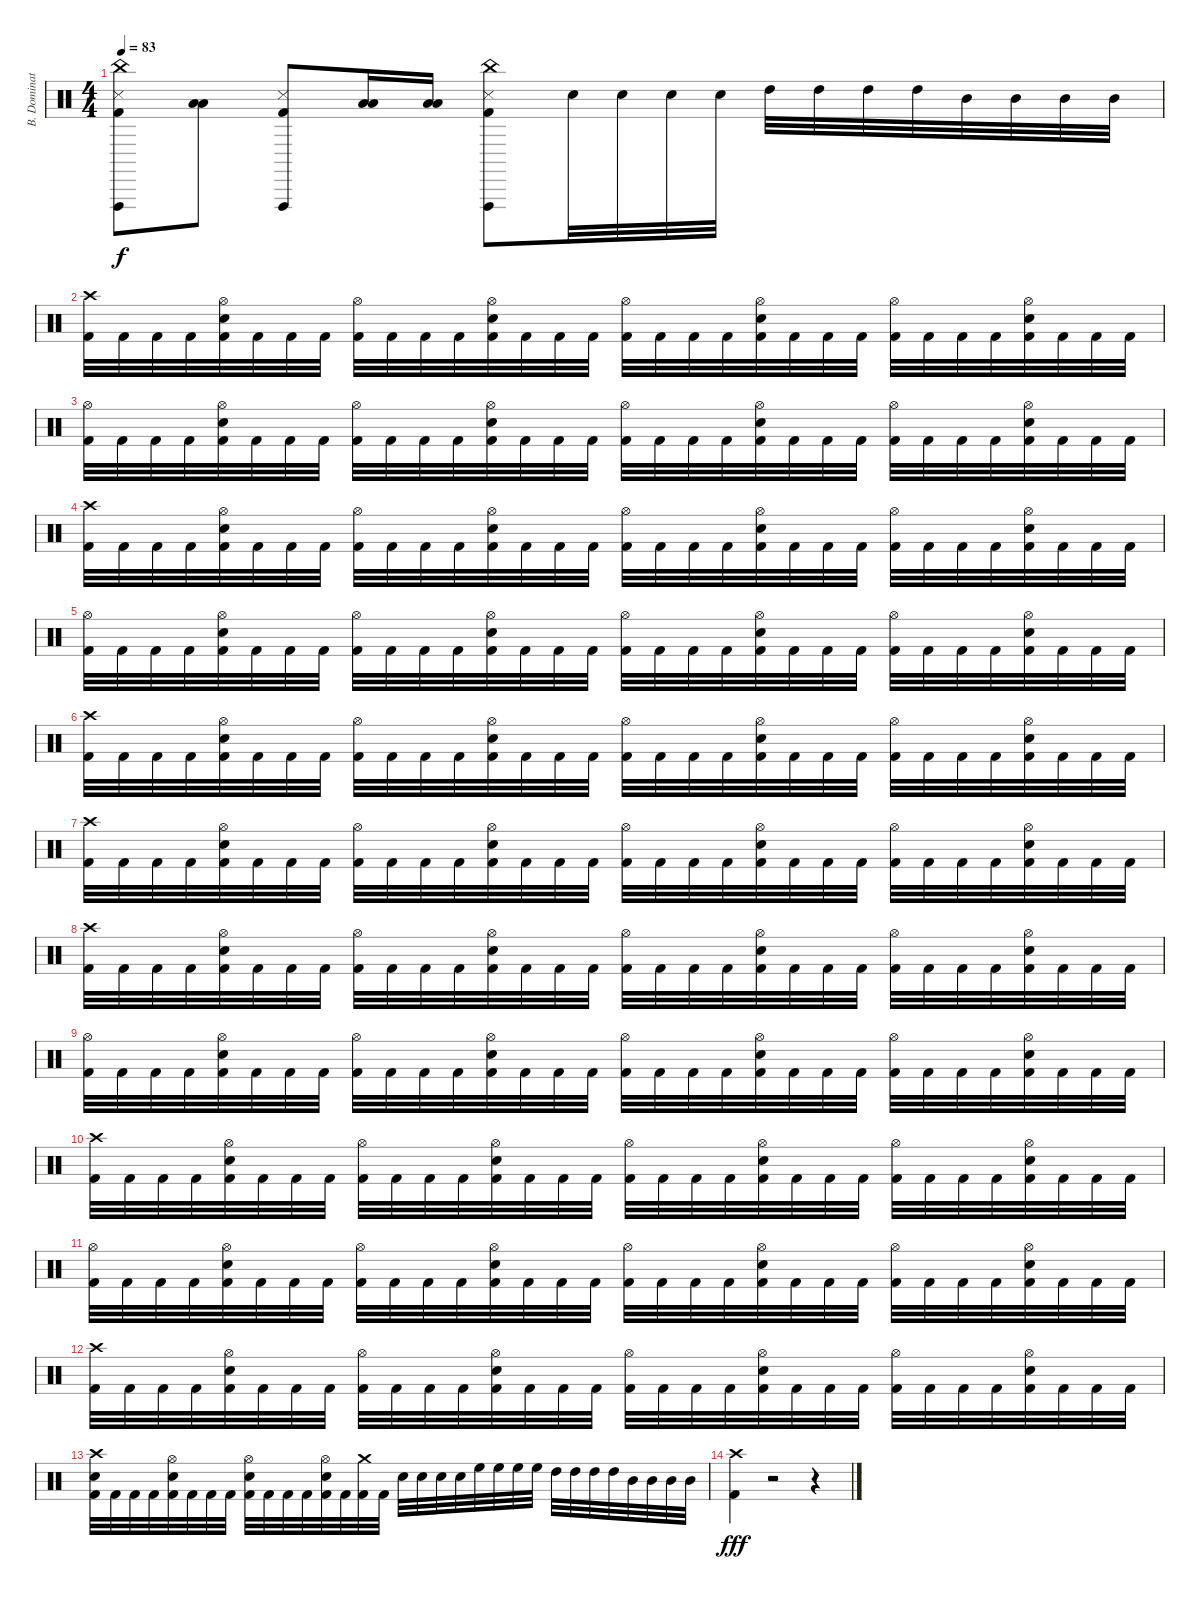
\track ("B. Dominator" "B. Dominat") {instrument percussion}
\staff {score}
\articulation defaults
\ts (4 4)
\tempo 83
\clef neutral
\ks c
("China (hit)" "Vibraslap (hit)" "Snare (side stick) 3" "Kick (hit) 2").8{dy f} ("Low Tom (hit)" "Low Floor Tom (hit)").8 ("Vibraslap (hit)" "Snare (side stick) 3" "Kick (hit) 2").8 ("Low Tom (hit)" "Low Floor Tom (hit)").16 ("Low Tom (hit)" "Low Floor Tom (hit)").16 ("China (hit)" "Vibraslap (hit)" "Snare (side stick) 3" "Kick (hit) 2").8 "Electric Snare (hit)".32 "Electric Snare (hit)".32 "Electric Snare (hit)".32 "Electric Snare (hit)".32 "High Tom (hit)".32 "High Tom (hit)".32 "High Tom (hit)".32 "High Tom (hit)".32 "Mid Tom (hit)".32 "Mid Tom (hit)".32 "Mid Tom (hit)".32 "Mid Tom (hit)".32 |
("Crash high (hit)" "Kick (hit) 2").32 "Kick (hit) 2".32 "Kick (hit) 2".32 "Kick (hit) 2".32 ("Hi-Hat (open)" "Electric Snare (hit)" "Kick (hit) 2").32 "Kick (hit) 2".32 "Kick (hit) 2".32 "Kick (hit) 2".32 ("Hi-Hat (open)" "Kick (hit) 2").32 "Kick (hit) 2".32 "Kick (hit) 2".32 "Kick (hit) 2".32 ("Hi-Hat (open)" "Electric Snare (hit)" "Kick (hit) 2").32 "Kick (hit) 2".32 "Kick (hit) 2".32 "Kick (hit) 2".32 ("Hi-Hat (open)" "Kick (hit) 2").32 "Kick (hit) 2".32 "Kick (hit) 2".32 "Kick (hit) 2".32 ("Hi-Hat (open)" "Electric Snare (hit)" "Kick (hit) 2").32 "Kick (hit) 2".32 "Kick (hit) 2".32 "Kick (hit) 2".32 ("Hi-Hat (open)" "Kick (hit) 2").32 "Kick (hit) 2".32 "Kick (hit) 2".32 "Kick (hit) 2".32 ("Hi-Hat (open)" "Electric Snare (hit)" "Kick (hit) 2").32 "Kick (hit) 2".32 "Kick (hit) 2".32 "Kick (hit) 2".32 |
("Hi-Hat (open)" "Kick (hit) 2").32 "Kick (hit) 2".32 "Kick (hit) 2".32 "Kick (hit) 2".32 ("Hi-Hat (open)" "Electric Snare (hit)" "Kick (hit) 2").32 "Kick (hit) 2".32 "Kick (hit) 2".32 "Kick (hit) 2".32 ("Hi-Hat (open)" "Kick (hit) 2").32 "Kick (hit) 2".32 "Kick (hit) 2".32 "Kick (hit) 2".32 ("Hi-Hat (open)" "Electric Snare (hit)" "Kick (hit) 2").32 "Kick (hit) 2".32 "Kick (hit) 2".32 "Kick (hit) 2".32 ("Hi-Hat (open)" "Kick (hit) 2").32 "Kick (hit) 2".32 "Kick (hit) 2".32 "Kick (hit) 2".32 ("Hi-Hat (open)" "Electric Snare (hit)" "Kick (hit) 2").32 "Kick (hit) 2".32 "Kick (hit) 2".32 "Kick (hit) 2".32 ("Hi-Hat (open)" "Kick (hit) 2").32 "Kick (hit) 2".32 "Kick (hit) 2".32 "Kick (hit) 2".32 ("Hi-Hat (open)" "Electric Snare (hit)" "Kick (hit) 2").32 "Kick (hit) 2".32 "Kick (hit) 2".32 "Kick (hit) 2".32 |
("Crash high (hit)" "Kick (hit) 2").32 "Kick (hit) 2".32 "Kick (hit) 2".32 "Kick (hit) 2".32 ("Hi-Hat (open)" "Electric Snare (hit)" "Kick (hit) 2").32 "Kick (hit) 2".32 "Kick (hit) 2".32 "Kick (hit) 2".32 ("Hi-Hat (open)" "Kick (hit) 2").32 "Kick (hit) 2".32 "Kick (hit) 2".32 "Kick (hit) 2".32 ("Hi-Hat (open)" "Electric Snare (hit)" "Kick (hit) 2").32 "Kick (hit) 2".32 "Kick (hit) 2".32 "Kick (hit) 2".32 ("Hi-Hat (open)" "Kick (hit) 2").32 "Kick (hit) 2".32 "Kick (hit) 2".32 "Kick (hit) 2".32 ("Hi-Hat (open)" "Electric Snare (hit)" "Kick (hit) 2").32 "Kick (hit) 2".32 "Kick (hit) 2".32 "Kick (hit) 2".32 ("Hi-Hat (open)" "Kick (hit) 2").32 "Kick (hit) 2".32 "Kick (hit) 2".32 "Kick (hit) 2".32 ("Hi-Hat (open)" "Electric Snare (hit)" "Kick (hit) 2").32 "Kick (hit) 2".32 "Kick (hit) 2".32 "Kick (hit) 2".32 |
("Hi-Hat (open)" "Kick (hit) 2").32 "Kick (hit) 2".32 "Kick (hit) 2".32 "Kick (hit) 2".32 ("Hi-Hat (open)" "Electric Snare (hit)" "Kick (hit) 2").32 "Kick (hit) 2".32 "Kick (hit) 2".32 "Kick (hit) 2".32 ("Hi-Hat (open)" "Kick (hit) 2").32 "Kick (hit) 2".32 "Kick (hit) 2".32 "Kick (hit) 2".32 ("Hi-Hat (open)" "Electric Snare (hit)" "Kick (hit) 2").32 "Kick (hit) 2".32 "Kick (hit) 2".32 "Kick (hit) 2".32 ("Hi-Hat (open)" "Kick (hit) 2").32 "Kick (hit) 2".32 "Kick (hit) 2".32 "Kick (hit) 2".32 ("Hi-Hat (open)" "Electric Snare (hit)" "Kick (hit) 2").32 "Kick (hit) 2".32 "Kick (hit) 2".32 "Kick (hit) 2".32 ("Hi-Hat (open)" "Kick (hit) 2").32 "Kick (hit) 2".32 "Kick (hit) 2".32 "Kick (hit) 2".32 ("Hi-Hat (open)" "Electric Snare (hit)" "Kick (hit) 2").32 "Kick (hit) 2".32 "Kick (hit) 2".32 "Kick (hit) 2".32 |
("Crash high (hit)" "Kick (hit) 2").32 "Kick (hit) 2".32 "Kick (hit) 2".32 "Kick (hit) 2".32 ("Hi-Hat (open)" "Electric Snare (hit)" "Kick (hit) 2").32 "Kick (hit) 2".32 "Kick (hit) 2".32 "Kick (hit) 2".32 ("Hi-Hat (open)" "Kick (hit) 2").32 "Kick (hit) 2".32 "Kick (hit) 2".32 "Kick (hit) 2".32 ("Hi-Hat (open)" "Electric Snare (hit)" "Kick (hit) 2").32 "Kick (hit) 2".32 "Kick (hit) 2".32 "Kick (hit) 2".32 ("Hi-Hat (open)" "Kick (hit) 2").32 "Kick (hit) 2".32 "Kick (hit) 2".32 "Kick (hit) 2".32 ("Hi-Hat (open)" "Electric Snare (hit)" "Kick (hit) 2").32 "Kick (hit) 2".32 "Kick (hit) 2".32 "Kick (hit) 2".32 ("Hi-Hat (open)" "Kick (hit) 2").32 "Kick (hit) 2".32 "Kick (hit) 2".32 "Kick (hit) 2".32 ("Hi-Hat (open)" "Electric Snare (hit)" "Kick (hit) 2").32 "Kick (hit) 2".32 "Kick (hit) 2".32 "Kick (hit) 2".32 |
("Crash high (hit)" "Kick (hit) 2").32 "Kick (hit) 2".32 "Kick (hit) 2".32 "Kick (hit) 2".32 ("Hi-Hat (open)" "Electric Snare (hit)" "Kick (hit) 2").32 "Kick (hit) 2".32 "Kick (hit) 2".32 "Kick (hit) 2".32 ("Hi-Hat (open)" "Kick (hit) 2").32 "Kick (hit) 2".32 "Kick (hit) 2".32 "Kick (hit) 2".32 ("Hi-Hat (open)" "Electric Snare (hit)" "Kick (hit) 2").32 "Kick (hit) 2".32 "Kick (hit) 2".32 "Kick (hit) 2".32 ("Hi-Hat (open)" "Kick (hit) 2").32 "Kick (hit) 2".32 "Kick (hit) 2".32 "Kick (hit) 2".32 ("Hi-Hat (open)" "Electric Snare (hit)" "Kick (hit) 2").32 "Kick (hit) 2".32 "Kick (hit) 2".32 "Kick (hit) 2".32 ("Hi-Hat (open)" "Kick (hit) 2").32 "Kick (hit) 2".32 "Kick (hit) 2".32 "Kick (hit) 2".32 ("Hi-Hat (open)" "Electric Snare (hit)" "Kick (hit) 2").32 "Kick (hit) 2".32 "Kick (hit) 2".32 "Kick (hit) 2".32 |
("Crash high (hit)" "Kick (hit) 2").32 "Kick (hit) 2".32 "Kick (hit) 2".32 "Kick (hit) 2".32 ("Hi-Hat (open)" "Electric Snare (hit)" "Kick (hit) 2").32 "Kick (hit) 2".32 "Kick (hit) 2".32 "Kick (hit) 2".32 ("Hi-Hat (open)" "Kick (hit) 2").32 "Kick (hit) 2".32 "Kick (hit) 2".32 "Kick (hit) 2".32 ("Hi-Hat (open)" "Electric Snare (hit)" "Kick (hit) 2").32 "Kick (hit) 2".32 "Kick (hit) 2".32 "Kick (hit) 2".32 ("Hi-Hat (open)" "Kick (hit) 2").32 "Kick (hit) 2".32 "Kick (hit) 2".32 "Kick (hit) 2".32 ("Hi-Hat (open)" "Electric Snare (hit)" "Kick (hit) 2").32 "Kick (hit) 2".32 "Kick (hit) 2".32 "Kick (hit) 2".32 ("Hi-Hat (open)" "Kick (hit) 2").32 "Kick (hit) 2".32 "Kick (hit) 2".32 "Kick (hit) 2".32 ("Hi-Hat (open)" "Electric Snare (hit)" "Kick (hit) 2").32 "Kick (hit) 2".32 "Kick (hit) 2".32 "Kick (hit) 2".32 |
("Hi-Hat (open)" "Kick (hit) 2").32 "Kick (hit) 2".32 "Kick (hit) 2".32 "Kick (hit) 2".32 ("Hi-Hat (open)" "Electric Snare (hit)" "Kick (hit) 2").32 "Kick (hit) 2".32 "Kick (hit) 2".32 "Kick (hit) 2".32 ("Hi-Hat (open)" "Kick (hit) 2").32 "Kick (hit) 2".32 "Kick (hit) 2".32 "Kick (hit) 2".32 ("Hi-Hat (open)" "Electric Snare (hit)" "Kick (hit) 2").32 "Kick (hit) 2".32 "Kick (hit) 2".32 "Kick (hit) 2".32 ("Hi-Hat (open)" "Kick (hit) 2").32 "Kick (hit) 2".32 "Kick (hit) 2".32 "Kick (hit) 2".32 ("Hi-Hat (open)" "Electric Snare (hit)" "Kick (hit) 2").32 "Kick (hit) 2".32 "Kick (hit) 2".32 "Kick (hit) 2".32 ("Hi-Hat (open)" "Kick (hit) 2").32 "Kick (hit) 2".32 "Kick (hit) 2".32 "Kick (hit) 2".32 ("Hi-Hat (open)" "Electric Snare (hit)" "Kick (hit) 2").32 "Kick (hit) 2".32 "Kick (hit) 2".32 "Kick (hit) 2".32 |
("Crash high (hit)" "Kick (hit) 2").32 "Kick (hit) 2".32 "Kick (hit) 2".32 "Kick (hit) 2".32 ("Hi-Hat (open)" "Electric Snare (hit)" "Kick (hit) 2").32 "Kick (hit) 2".32 "Kick (hit) 2".32 "Kick (hit) 2".32 ("Hi-Hat (open)" "Kick (hit) 2").32 "Kick (hit) 2".32 "Kick (hit) 2".32 "Kick (hit) 2".32 ("Hi-Hat (open)" "Electric Snare (hit)" "Kick (hit) 2").32 "Kick (hit) 2".32 "Kick (hit) 2".32 "Kick (hit) 2".32 ("Hi-Hat (open)" "Kick (hit) 2").32 "Kick (hit) 2".32 "Kick (hit) 2".32 "Kick (hit) 2".32 ("Hi-Hat (open)" "Electric Snare (hit)" "Kick (hit) 2").32 "Kick (hit) 2".32 "Kick (hit) 2".32 "Kick (hit) 2".32 ("Hi-Hat (open)" "Kick (hit) 2").32 "Kick (hit) 2".32 "Kick (hit) 2".32 "Kick (hit) 2".32 ("Hi-Hat (open)" "Electric Snare (hit)" "Kick (hit) 2").32 "Kick (hit) 2".32 "Kick (hit) 2".32 "Kick (hit) 2".32 |
("Hi-Hat (open)" "Kick (hit) 2").32 "Kick (hit) 2".32 "Kick (hit) 2".32 "Kick (hit) 2".32 ("Hi-Hat (open)" "Electric Snare (hit)" "Kick (hit) 2").32 "Kick (hit) 2".32 "Kick (hit) 2".32 "Kick (hit) 2".32 ("Hi-Hat (open)" "Kick (hit) 2").32 "Kick (hit) 2".32 "Kick (hit) 2".32 "Kick (hit) 2".32 ("Hi-Hat (open)" "Electric Snare (hit)" "Kick (hit) 2").32 "Kick (hit) 2".32 "Kick (hit) 2".32 "Kick (hit) 2".32 ("Hi-Hat (open)" "Kick (hit) 2").32 "Kick (hit) 2".32 "Kick (hit) 2".32 "Kick (hit) 2".32 ("Hi-Hat (open)" "Electric Snare (hit)" "Kick (hit) 2").32 "Kick (hit) 2".32 "Kick (hit) 2".32 "Kick (hit) 2".32 ("Hi-Hat (open)" "Kick (hit) 2").32 "Kick (hit) 2".32 "Kick (hit) 2".32 "Kick (hit) 2".32 ("Hi-Hat (open)" "Electric Snare (hit)" "Kick (hit) 2").32 "Kick (hit) 2".32 "Kick (hit) 2".32 "Kick (hit) 2".32 |
("Crash high (hit)" "Kick (hit) 2").32 "Kick (hit) 2".32 "Kick (hit) 2".32 "Kick (hit) 2".32 ("Hi-Hat (open)" "Electric Snare (hit)" "Kick (hit) 2").32 "Kick (hit) 2".32 "Kick (hit) 2".32 "Kick (hit) 2".32 ("Hi-Hat (open)" "Kick (hit) 2").32 "Kick (hit) 2".32 "Kick (hit) 2".32 "Kick (hit) 2".32 ("Hi-Hat (open)" "Electric Snare (hit)" "Kick (hit) 2").32 "Kick (hit) 2".32 "Kick (hit) 2".32 "Kick (hit) 2".32 ("Hi-Hat (open)" "Kick (hit) 2").32 "Kick (hit) 2".32 "Kick (hit) 2".32 "Kick (hit) 2".32 ("Hi-Hat (open)" "Electric Snare (hit)" "Kick (hit) 2").32 "Kick (hit) 2".32 "Kick (hit) 2".32 "Kick (hit) 2".32 ("Hi-Hat (open)" "Kick (hit) 2").32 "Kick (hit) 2".32 "Kick (hit) 2".32 "Kick (hit) 2".32 ("Hi-Hat (open)" "Electric Snare (hit)" "Kick (hit) 2").32 "Kick (hit) 2".32 "Kick (hit) 2".32 "Kick (hit) 2".32 |
("Crash high (hit)" "Electric Snare (hit)" "Kick (hit) 2").32 "Kick (hit) 2".32 "Kick (hit) 2".32 "Kick (hit) 2".32 ("Hi-Hat (open)" "Electric Snare (hit)" "Kick (hit) 2").32 "Kick (hit) 2".32 "Kick (hit) 2".32 "Kick (hit) 2".32 ("Hi-Hat (open)" "Electric Snare (hit)" "Kick (hit) 2").32 "Kick (hit) 2".32 "Kick (hit) 2".32 "Kick (hit) 2".32 ("Hi-Hat (open)" "Electric Snare (hit)" "Kick (hit) 2").32 "Kick (hit) 2".32 ("Crash medium (hit)" "Kick (hit) 2").32 "Kick (hit) 2".32 "Electric Snare (hit)".32 "Electric Snare (hit)".32 "Electric Snare (hit)".32 "Electric Snare (hit)".32 "High Floor Tom (hit)".32 "High Floor Tom (hit)".32 "High Floor Tom (hit)".32 "High Floor Tom (hit)".32 "High Tom (hit)".32 "High Tom (hit)".32 "High Tom (hit)".32 "High Tom (hit)".32 "Mid Tom (hit)".32 "Mid Tom (hit)".32 "Mid Tom (hit)".32 "Mid Tom (hit)".32 |
("Crash high (hit)" "Kick (hit) 2").4{dy fff} r.2 r.4
